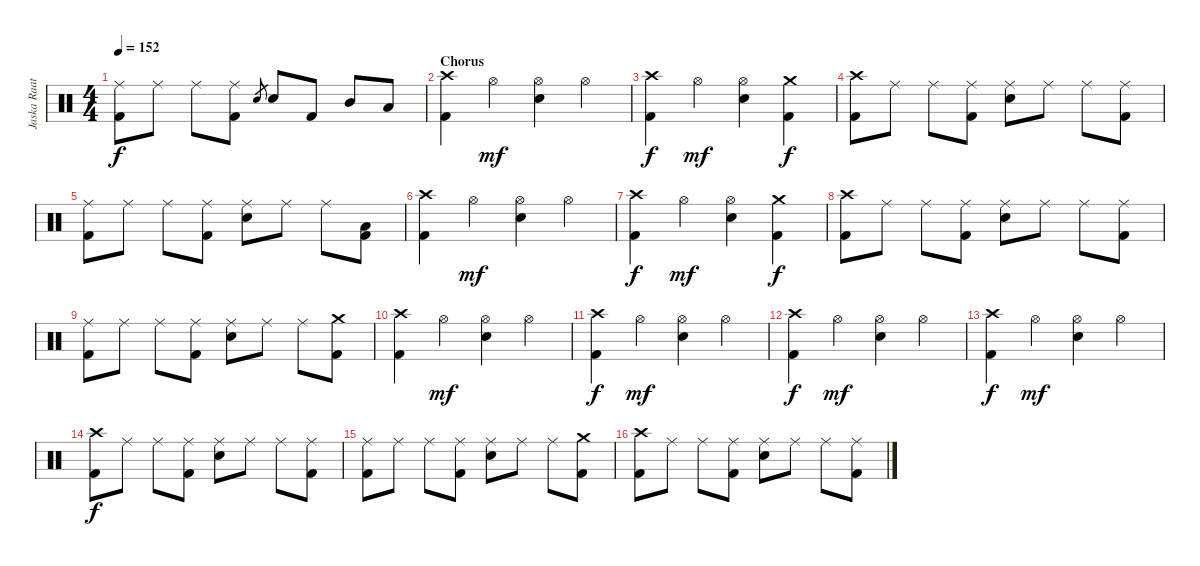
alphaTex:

\track ("Jaska Raatikainen" "Jaska Raat") {instrument percussion}
\staff {score}
\articulation defaults
\ts (4 4)
\tempo 152
\clef neutral
\ks c
("Ride (middle)" "Kick (hit) 2").8{dy f} "Ride (middle)".8 "Ride (middle)".8 ("Ride (middle)" "Kick (hit) 2").8 "Electric Snare (hit)".8{gr} "Electric Snare (hit)".8 "Kick (hit) 2".8 "Mid Tom (hit)".8 "Low Tom (hit)".8 |
\section ("" "Chorus")
("Crash high (hit)" "Kick (hit) 2").4 "Hi-Hat (open)".4{dy mf} ("Hi-Hat (open)" "Electric Snare (hit)").4 "Hi-Hat (open)".4 |
("Crash high (hit)" "Kick (hit) 2").4{dy f} "Hi-Hat (open)".4{dy mf} ("Hi-Hat (open)" "Electric Snare (hit)").4 ("Crash medium (hit)" "Kick (hit) 2").4{dy f} |
("Crash high (hit)" "Kick (hit) 2").8 "Ride (middle)".8 "Ride (middle)".8 ("Ride (middle)" "Kick (hit) 2").8 ("Ride (middle)" "Electric Snare (hit)").8 "Ride (middle)".8 "Ride (middle)".8 ("Ride (middle)" "Kick (hit) 2").8 |
("Ride (middle)" "Kick (hit) 2").8 "Ride (middle)".8 "Ride (middle)".8 ("Ride (middle)" "Kick (hit) 2").8 ("Ride (middle)" "Electric Snare (hit)").8 "Ride (middle)".8 "Ride (middle)".8 ("Low Tom (hit)" "Kick (hit) 2").8 |
("Crash high (hit)" "Kick (hit) 2").4 "Hi-Hat (open)".4{dy mf} ("Hi-Hat (open)" "Electric Snare (hit)").4 "Hi-Hat (open)".4 |
("Crash high (hit)" "Kick (hit) 2").4{dy f} "Hi-Hat (open)".4{dy mf} ("Hi-Hat (open)" "Electric Snare (hit)").4 ("Crash medium (hit)" "Kick (hit) 2").4{dy f} |
("Crash high (hit)" "Kick (hit) 2").8 "Ride (middle)".8 "Ride (middle)".8 ("Ride (middle)" "Kick (hit) 2").8 ("Ride (middle)" "Electric Snare (hit)").8 "Ride (middle)".8 "Ride (middle)".8 ("Ride (middle)" "Kick (hit) 2").8 |
("Ride (middle)" "Kick (hit) 2").8 "Ride (middle)".8 "Ride (middle)".8 ("Ride (middle)" "Kick (hit) 2").8 ("Ride (middle)" "Electric Snare (hit)").8 "Ride (middle)".8 "Ride (middle)".8 ("Crash medium (hit)" "Kick (hit) 2").8 |
("Crash high (hit)" "Kick (hit) 2").4 "Hi-Hat (open)".4{dy mf} ("Hi-Hat (open)" "Electric Snare (hit)").4 "Hi-Hat (open)".4 |
("Crash high (hit)" "Kick (hit) 2").4{dy f} "Hi-Hat (open)".4{dy mf} ("Hi-Hat (open)" "Electric Snare (hit)").4 "Hi-Hat (open)".4 |
("Crash high (hit)" "Kick (hit) 2").4{dy f} "Hi-Hat (open)".4{dy mf} ("Hi-Hat (open)" "Electric Snare (hit)").4 "Hi-Hat (open)".4 |
("Crash high (hit)" "Kick (hit) 2").4{dy f} "Hi-Hat (open)".4{dy mf} ("Hi-Hat (open)" "Electric Snare (hit)").4 "Hi-Hat (open)".4 |
("Crash high (hit)" "Kick (hit) 2").8{dy f} "Ride (middle)".8 "Ride (middle)".8 ("Ride (middle)" "Kick (hit) 2").8 ("Ride (middle)" "Electric Snare (hit)").8 "Ride (middle)".8 "Ride (middle)".8 ("Ride (middle)" "Kick (hit) 2").8 |
("Ride (middle)" "Kick (hit) 2").8 "Ride (middle)".8 "Ride (middle)".8 ("Ride (middle)" "Kick (hit) 2").8 ("Ride (middle)" "Electric Snare (hit)").8 "Ride (middle)".8 "Ride (middle)".8 ("Crash medium (hit)" "Kick (hit) 2").8 |
("Crash high (hit)" "Kick (hit) 2").8 "Ride (middle)".8 "Ride (middle)".8 ("Ride (middle)" "Kick (hit) 2").8 ("Ride (middle)" "Electric Snare (hit)").8 "Ride (middle)".8 "Ride (middle)".8 ("Ride (middle)" "Kick (hit) 2").8
